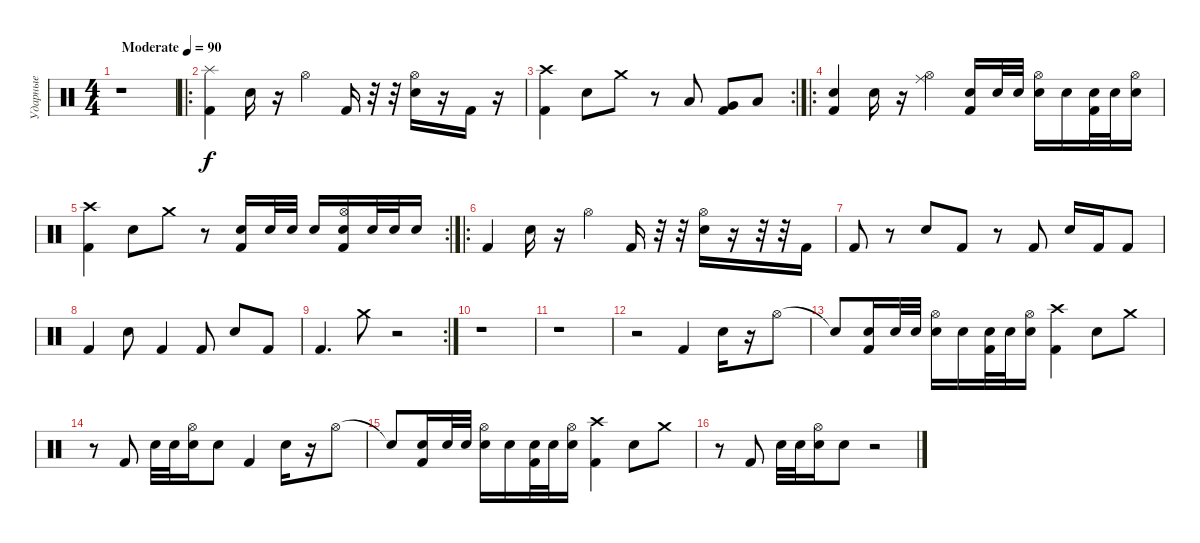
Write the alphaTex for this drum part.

\track ("Ударные" "Ударные") {instrument percussion}
\staff {score}
\articulation defaults
\ts (4 4)
\tempo (90 "Moderate")
\clef neutral
\ks c
r.1{dy f} |
\ro
("Splash (hit)" "Kick (hit) 2").4 "Snare (hit) 2".16 r.16 "Hi-Hat (open)".4 "Kick (hit) 2".16 r.32 r.32 ("Hi-Hat (open)" "Snare (hit) 2").16 r.16 "Kick (hit) 2".16 r.16 |
\rc 2
("Crash high (hit)" "Kick (hit) 2").4 "Snare (hit) 2".8 "Crash medium (hit)".8 r.8 "Low Tom (hit)".8 ("Very Low Tom (hit)" "Kick (hit) 2").8 "Low Floor Tom (hit)".8 |
\ro
("Electric Snare (hit)" "Kick (hit) 2").4 "Snare (hit) 2".16 r.16 ("Hi-Hat (open)" "Ride (middle)").4 ("Electric Snare (hit)" "Kick (hit) 2").16 "Electric Snare (hit)".32 "Electric Snare (hit)".32 ("Hi-Hat (open)" "Snare (hit) 2").16 "Electric Snare (hit)".16 ("Electric Snare (hit)" "Kick (hit) 2").32 "Electric Snare (hit)".32 ("Hi-Hat (open)" "Electric Snare (hit)").16 |
\rc 2
("Crash high (hit)" "Kick (hit) 2").4 "Snare (hit) 2".8 "Crash medium (hit)".8 r.8 ("Electric Snare (hit)" "Kick (hit) 2").16 "Electric Snare (hit)".32 "Electric Snare (hit)".32 "Snare (hit) 2".16 ("Hi-Hat (open)" "Electric Snare (hit)" "Kick (hit) 2").16 "Electric Snare (hit)".32 "Electric Snare (hit)".32 "Electric Snare (hit)".16 |
\ro "Kick (hit) 2".4 "Snare (hit) 2".16
r.16 "Hi-Hat (open)".4 "Kick (hit) 2".16 r.32 r.32 ("Hi-Hat (open)" "Snare (hit) 2").16 r.16 r.32 r.32 "Kick (hit) 2".16 |
"Kick (hit) 2".8 r.8 "Snare (hit) 2".8 "Kick (hit) 2".8 r.8 "Kick (hit) 2".8 "Snare (hit) 2".16 "Kick (hit) 2".16 "Kick (hit) 2".8 |
"Kick (hit) 2".4 "Snare (hit) 2".8 "Kick (hit) 2".4 "Kick (hit) 2".8 "Snare (hit) 2".8 "Kick (hit) 2".8 |
\rc 2 "Kick (hit) 2".4{d} "Crash medium (hit)".8
r.2 |
r.1 |
r.1 |
r.2 "Kick (hit) 2".4 "Snare (hit) 2".16 r.16 "Hi-Hat (open)".8 |
"Snare (hit)"{t}.8 ("Electric Snare (hit)" "Kick (hit) 2").16 "Electric Snare (hit)".32 "Electric Snare (hit)".32 ("Hi-Hat (open)" "Snare (hit) 2").16 "Electric Snare (hit)".16 ("Electric Snare (hit)" "Kick (hit) 2").32 "Electric Snare (hit)".32 ("Hi-Hat (open)" "Electric Snare (hit)").16 ("Crash high (hit)" "Kick (hit) 2").4 "Snare (hit) 2".8 "Crash medium (hit)".8 |
r.8 "Kick (hit) 2".8 "Electric Snare (hit)".32 "Electric Snare (hit)".32 ("Hi-Hat (open)" "Snare (hit) 2").16 "Electric Snare (hit)".8 "Kick (hit) 2".4 "Snare (hit) 2".16 r.16 "Hi-Hat (open)".8 |
"Snare (hit)"{t}.8 ("Electric Snare (hit)" "Kick (hit) 2").16 "Electric Snare (hit)".32 "Electric Snare (hit)".32 ("Hi-Hat (open)" "Snare (hit) 2").16 "Electric Snare (hit)".16 ("Electric Snare (hit)" "Kick (hit) 2").32 "Electric Snare (hit)".32 ("Hi-Hat (open)" "Electric Snare (hit)").16 ("Crash high (hit)" "Kick (hit) 2").4 "Snare (hit) 2".8 "Crash medium (hit)".8 |
r.8 "Kick (hit) 2".8 "Electric Snare (hit)".32 "Electric Snare (hit)".32 ("Hi-Hat (open)" "Snare (hit) 2").16 "Electric Snare (hit)".8 r.2
